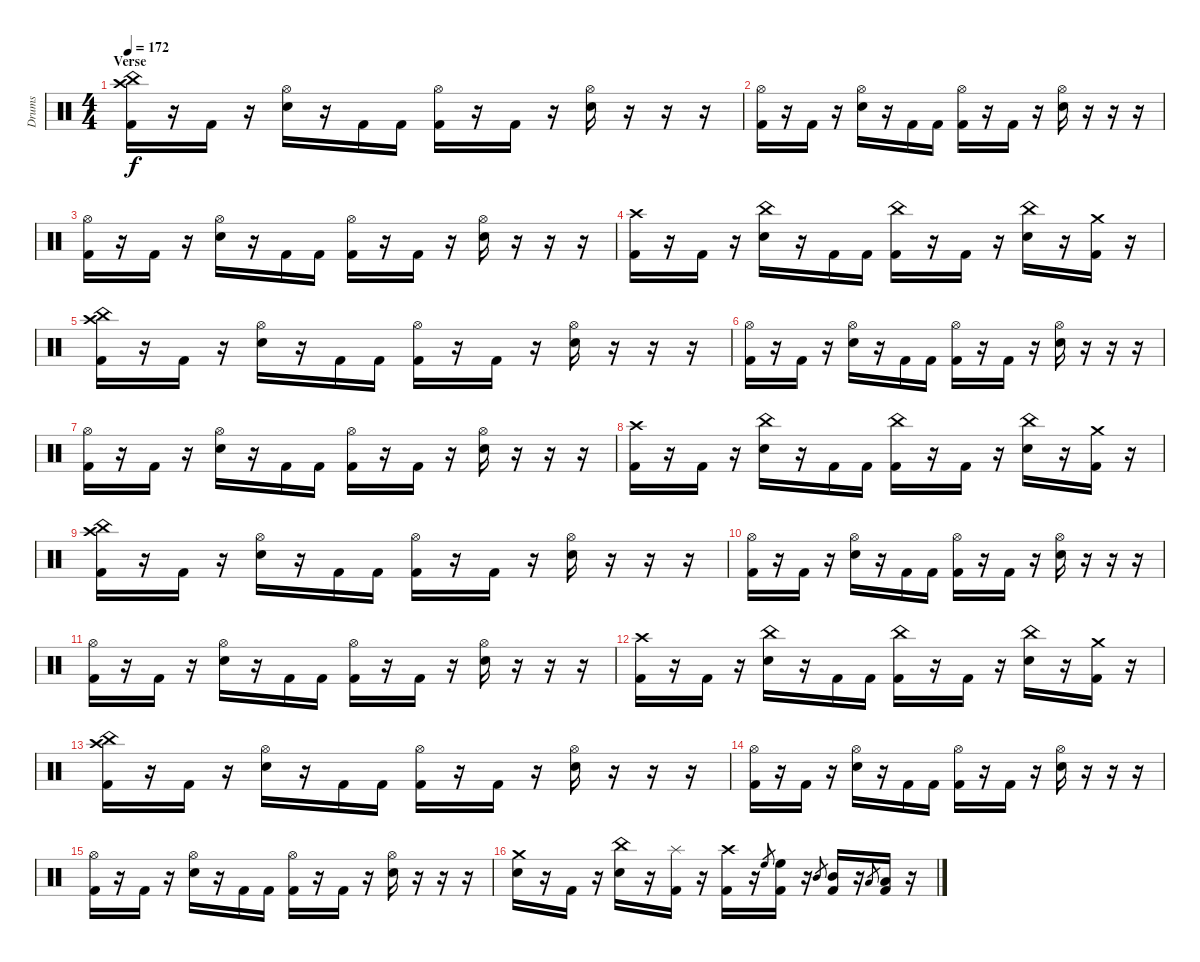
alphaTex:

\track ("Drums" "Drums") {instrument percussion}
\staff {score}
\articulation defaults
\ts (4 4)
\section ("" "Verse")
\tempo 172
\clef neutral
\ks c
("Crash high (hit)" "China (hit)" "Kick (hit) 2").16{dy f} r.16 "Kick (hit) 2".16 r.16 ("Hi-Hat (open)" "Electric Snare (hit)").16 r.16 "Kick (hit) 2".16 "Kick (hit) 2".16 ("Hi-Hat (open)" "Kick (hit) 2").16 r.16 "Kick (hit) 2".16 r.16 ("Hi-Hat (open)" "Electric Snare (hit)").16 r.16 r.16 r.16 |
("Hi-Hat (open)" "Kick (hit) 2").16 r.16 "Kick (hit) 2".16 r.16 ("Hi-Hat (open)" "Electric Snare (hit)").16 r.16 "Kick (hit) 2".16 "Kick (hit) 2".16 ("Hi-Hat (open)" "Kick (hit) 2").16 r.16 "Kick (hit) 2".16 r.16 ("Hi-Hat (open)" "Electric Snare (hit)").16 r.16 r.16 r.16 |
("Hi-Hat (open)" "Kick (hit) 2").16 r.16 "Kick (hit) 2".16 r.16 ("Hi-Hat (open)" "Electric Snare (hit)").16 r.16 "Kick (hit) 2".16 "Kick (hit) 2".16 ("Hi-Hat (open)" "Kick (hit) 2").16 r.16 "Kick (hit) 2".16 r.16 ("Hi-Hat (open)" "Electric Snare (hit)").16 r.16 r.16 r.16 |
("Crash high (hit)" "Kick (hit) 2").16 r.16 "Kick (hit) 2".16 r.16 ("China (hit)" "Electric Snare (hit)").16 r.16 "Kick (hit) 2".16 "Kick (hit) 2".16 ("China (hit)" "Kick (hit) 2").16 r.16 "Kick (hit) 2".16 r.16 ("China (hit)" "Electric Snare (hit)").16 r.16 ("Crash medium (hit)" "Kick (hit) 2").16 r.16 |
("Crash high (hit)" "China (hit)" "Kick (hit) 2").16 r.16 "Kick (hit) 2".16 r.16 ("Hi-Hat (open)" "Electric Snare (hit)").16 r.16 "Kick (hit) 2".16 "Kick (hit) 2".16 ("Hi-Hat (open)" "Kick (hit) 2").16 r.16 "Kick (hit) 2".16 r.16 ("Hi-Hat (open)" "Electric Snare (hit)").16 r.16 r.16 r.16 |
("Hi-Hat (open)" "Kick (hit) 2").16 r.16 "Kick (hit) 2".16 r.16 ("Hi-Hat (open)" "Electric Snare (hit)").16 r.16 "Kick (hit) 2".16 "Kick (hit) 2".16 ("Hi-Hat (open)" "Kick (hit) 2").16 r.16 "Kick (hit) 2".16 r.16 ("Hi-Hat (open)" "Electric Snare (hit)").16 r.16 r.16 r.16 |
("Hi-Hat (open)" "Kick (hit) 2").16 r.16 "Kick (hit) 2".16 r.16 ("Hi-Hat (open)" "Electric Snare (hit)").16 r.16 "Kick (hit) 2".16 "Kick (hit) 2".16 ("Hi-Hat (open)" "Kick (hit) 2").16 r.16 "Kick (hit) 2".16 r.16 ("Hi-Hat (open)" "Electric Snare (hit)").16 r.16 r.16 r.16 |
("Crash high (hit)" "Kick (hit) 2").16 r.16 "Kick (hit) 2".16 r.16 ("China (hit)" "Electric Snare (hit)").16 r.16 "Kick (hit) 2".16 "Kick (hit) 2".16 ("China (hit)" "Kick (hit) 2").16 r.16 "Kick (hit) 2".16 r.16 ("China (hit)" "Electric Snare (hit)").16 r.16 ("Crash medium (hit)" "Kick (hit) 2").16 r.16 |
("Crash high (hit)" "China (hit)" "Kick (hit) 2").16 r.16 "Kick (hit) 2".16 r.16 ("Hi-Hat (open)" "Electric Snare (hit)").16 r.16 "Kick (hit) 2".16 "Kick (hit) 2".16 ("Hi-Hat (open)" "Kick (hit) 2").16 r.16 "Kick (hit) 2".16 r.16 ("Hi-Hat (open)" "Electric Snare (hit)").16 r.16 r.16 r.16 |
("Hi-Hat (open)" "Kick (hit) 2").16 r.16 "Kick (hit) 2".16 r.16 ("Hi-Hat (open)" "Electric Snare (hit)").16 r.16 "Kick (hit) 2".16 "Kick (hit) 2".16 ("Hi-Hat (open)" "Kick (hit) 2").16 r.16 "Kick (hit) 2".16 r.16 ("Hi-Hat (open)" "Electric Snare (hit)").16 r.16 r.16 r.16 |
("Hi-Hat (open)" "Kick (hit) 2").16 r.16 "Kick (hit) 2".16 r.16 ("Hi-Hat (open)" "Electric Snare (hit)").16 r.16 "Kick (hit) 2".16 "Kick (hit) 2".16 ("Hi-Hat (open)" "Kick (hit) 2").16 r.16 "Kick (hit) 2".16 r.16 ("Hi-Hat (open)" "Electric Snare (hit)").16 r.16 r.16 r.16 |
("Crash high (hit)" "Kick (hit) 2").16 r.16 "Kick (hit) 2".16 r.16 ("China (hit)" "Electric Snare (hit)").16 r.16 "Kick (hit) 2".16 "Kick (hit) 2".16 ("China (hit)" "Kick (hit) 2").16 r.16 "Kick (hit) 2".16 r.16 ("China (hit)" "Electric Snare (hit)").16 r.16 ("Crash medium (hit)" "Kick (hit) 2").16 r.16 |
("Crash high (hit)" "China (hit)" "Kick (hit) 2").16 r.16 "Kick (hit) 2".16 r.16 ("Hi-Hat (open)" "Electric Snare (hit)").16 r.16 "Kick (hit) 2".16 "Kick (hit) 2".16 ("Hi-Hat (open)" "Kick (hit) 2").16 r.16 "Kick (hit) 2".16 r.16 ("Hi-Hat (open)" "Electric Snare (hit)").16 r.16 r.16 r.16 |
("Hi-Hat (open)" "Kick (hit) 2").16 r.16 "Kick (hit) 2".16 r.16 ("Hi-Hat (open)" "Electric Snare (hit)").16 r.16 "Kick (hit) 2".16 "Kick (hit) 2".16 ("Hi-Hat (open)" "Kick (hit) 2").16 r.16 "Kick (hit) 2".16 r.16 ("Hi-Hat (open)" "Electric Snare (hit)").16 r.16 r.16 r.16 |
("Hi-Hat (open)" "Kick (hit) 2").16 r.16 "Kick (hit) 2".16 r.16 ("Hi-Hat (open)" "Electric Snare (hit)").16 r.16 "Kick (hit) 2".16 "Kick (hit) 2".16 ("Hi-Hat (open)" "Kick (hit) 2").16 r.16 "Kick (hit) 2".16 r.16 ("Hi-Hat (open)" "Electric Snare (hit)").16 r.16 r.16 r.16 |
("Crash medium (hit)" "Electric Snare (hit)").16 r.16 "Kick (hit) 2".16 r.16 ("China (hit)" "Electric Snare (hit)").16 r.16 ("Splash (hit)" "Kick (hit) 2").16 r.16 ("Crash high (hit)" "Kick (hit) 2").16 r.16 "High Floor Tom (hit)".8{gr} ("High Floor Tom (hit)" "Kick (hit) 2").16 r.16 "Mid Tom (hit)".8{gr} ("Mid Tom (hit)" "Kick (hit) 2").16 r.16 "Low Tom (hit)".8{gr} ("Low Tom (hit)" "Kick (hit) 2").16 r.16
